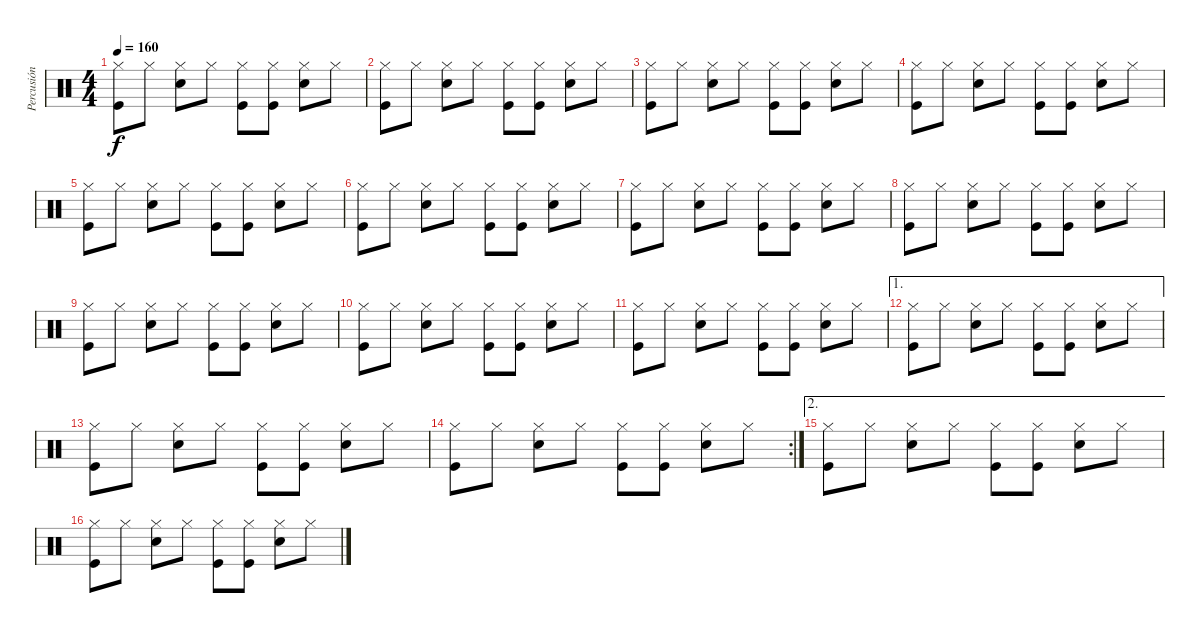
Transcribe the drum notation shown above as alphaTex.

\track ("Percusión" "Percusión") {instrument percussion}
\staff {score}
\articulation defaults
\ts (4 4)
\tempo 160
\clef neutral
\ks c
("Hi-Hat (closed)" "Kick (hit)").8{dy f} "Hi-Hat (closed)".8 ("Hi-Hat (closed)" "Electric Snare (hit)").8 "Hi-Hat (closed)".8 ("Hi-Hat (closed)" "Kick (hit)").8 ("Hi-Hat (closed)" "Kick (hit)").8 ("Hi-Hat (closed)" "Electric Snare (hit)").8 "Hi-Hat (closed)".8 |
("Hi-Hat (closed)" "Kick (hit)").8 "Hi-Hat (closed)".8 ("Hi-Hat (closed)" "Electric Snare (hit)").8 "Hi-Hat (closed)".8 ("Hi-Hat (closed)" "Kick (hit)").8 ("Hi-Hat (closed)" "Kick (hit)").8 ("Hi-Hat (closed)" "Electric Snare (hit)").8 "Hi-Hat (closed)".8 |
("Hi-Hat (closed)" "Kick (hit)").8 "Hi-Hat (closed)".8 ("Hi-Hat (closed)" "Electric Snare (hit)").8 "Hi-Hat (closed)".8 ("Hi-Hat (closed)" "Kick (hit)").8 ("Hi-Hat (closed)" "Kick (hit)").8 ("Hi-Hat (closed)" "Electric Snare (hit)").8 "Hi-Hat (closed)".8 |
("Hi-Hat (closed)" "Kick (hit)").8 "Hi-Hat (closed)".8 ("Hi-Hat (closed)" "Electric Snare (hit)").8 "Hi-Hat (closed)".8 ("Hi-Hat (closed)" "Kick (hit)").8 ("Hi-Hat (closed)" "Kick (hit)").8 ("Hi-Hat (closed)" "Electric Snare (hit)").8 "Hi-Hat (closed)".8 |
("Hi-Hat (closed)" "Kick (hit)").8 "Hi-Hat (closed)".8 ("Hi-Hat (closed)" "Electric Snare (hit)").8 "Hi-Hat (closed)".8 ("Hi-Hat (closed)" "Kick (hit)").8 ("Hi-Hat (closed)" "Kick (hit)").8 ("Hi-Hat (closed)" "Electric Snare (hit)").8 "Hi-Hat (closed)".8 |
("Hi-Hat (closed)" "Kick (hit)").8 "Hi-Hat (closed)".8 ("Hi-Hat (closed)" "Electric Snare (hit)").8 "Hi-Hat (closed)".8 ("Hi-Hat (closed)" "Kick (hit)").8 ("Hi-Hat (closed)" "Kick (hit)").8 ("Hi-Hat (closed)" "Electric Snare (hit)").8 "Hi-Hat (closed)".8 |
("Hi-Hat (closed)" "Kick (hit)").8 "Hi-Hat (closed)".8 ("Hi-Hat (closed)" "Electric Snare (hit)").8 "Hi-Hat (closed)".8 ("Hi-Hat (closed)" "Kick (hit)").8 ("Hi-Hat (closed)" "Kick (hit)").8 ("Hi-Hat (closed)" "Electric Snare (hit)").8 "Hi-Hat (closed)".8 |
("Hi-Hat (closed)" "Kick (hit)").8 "Hi-Hat (closed)".8 ("Hi-Hat (closed)" "Electric Snare (hit)").8 "Hi-Hat (closed)".8 ("Hi-Hat (closed)" "Kick (hit)").8 ("Hi-Hat (closed)" "Kick (hit)").8 ("Hi-Hat (closed)" "Electric Snare (hit)").8 "Hi-Hat (closed)".8 |
("Hi-Hat (closed)" "Kick (hit)").8 "Hi-Hat (closed)".8 ("Hi-Hat (closed)" "Electric Snare (hit)").8 "Hi-Hat (closed)".8 ("Hi-Hat (closed)" "Kick (hit)").8 ("Hi-Hat (closed)" "Kick (hit)").8 ("Hi-Hat (closed)" "Electric Snare (hit)").8 "Hi-Hat (closed)".8 |
("Hi-Hat (closed)" "Kick (hit)").8 "Hi-Hat (closed)".8 ("Hi-Hat (closed)" "Electric Snare (hit)").8 "Hi-Hat (closed)".8 ("Hi-Hat (closed)" "Kick (hit)").8 ("Hi-Hat (closed)" "Kick (hit)").8 ("Hi-Hat (closed)" "Electric Snare (hit)").8 "Hi-Hat (closed)".8 |
("Hi-Hat (closed)" "Kick (hit)").8 "Hi-Hat (closed)".8 ("Hi-Hat (closed)" "Electric Snare (hit)").8 "Hi-Hat (closed)".8 ("Hi-Hat (closed)" "Kick (hit)").8 ("Hi-Hat (closed)" "Kick (hit)").8 ("Hi-Hat (closed)" "Electric Snare (hit)").8 "Hi-Hat (closed)".8 |
\ae 1
("Hi-Hat (closed)" "Kick (hit)").8 "Hi-Hat (closed)".8 ("Hi-Hat (closed)" "Electric Snare (hit)").8 "Hi-Hat (closed)".8 ("Hi-Hat (closed)" "Kick (hit)").8 ("Hi-Hat (closed)" "Kick (hit)").8 ("Hi-Hat (closed)" "Electric Snare (hit)").8 "Hi-Hat (closed)".8 |
("Hi-Hat (closed)" "Kick (hit)").8 "Hi-Hat (closed)".8 ("Hi-Hat (closed)" "Electric Snare (hit)").8 "Hi-Hat (closed)".8 ("Hi-Hat (closed)" "Kick (hit)").8 ("Hi-Hat (closed)" "Kick (hit)").8 ("Hi-Hat (closed)" "Electric Snare (hit)").8 "Hi-Hat (closed)".8 |
\rc 2
("Hi-Hat (closed)" "Kick (hit)").8 "Hi-Hat (closed)".8 ("Hi-Hat (closed)" "Electric Snare (hit)").8 "Hi-Hat (closed)".8 ("Hi-Hat (closed)" "Kick (hit)").8 ("Hi-Hat (closed)" "Kick (hit)").8 ("Hi-Hat (closed)" "Electric Snare (hit)").8 "Hi-Hat (closed)".8 |
\ae 2
("Hi-Hat (closed)" "Kick (hit)").8 "Hi-Hat (closed)".8 ("Hi-Hat (closed)" "Electric Snare (hit)").8 "Hi-Hat (closed)".8 ("Hi-Hat (closed)" "Kick (hit)").8 ("Hi-Hat (closed)" "Kick (hit)").8 ("Hi-Hat (closed)" "Electric Snare (hit)").8 "Hi-Hat (closed)".8 |
("Hi-Hat (closed)" "Kick (hit)").8 "Hi-Hat (closed)".8 ("Hi-Hat (closed)" "Electric Snare (hit)").8 "Hi-Hat (closed)".8 ("Hi-Hat (closed)" "Kick (hit)").8 ("Hi-Hat (closed)" "Kick (hit)").8 ("Hi-Hat (closed)" "Electric Snare (hit)").8 "Hi-Hat (closed)".8
